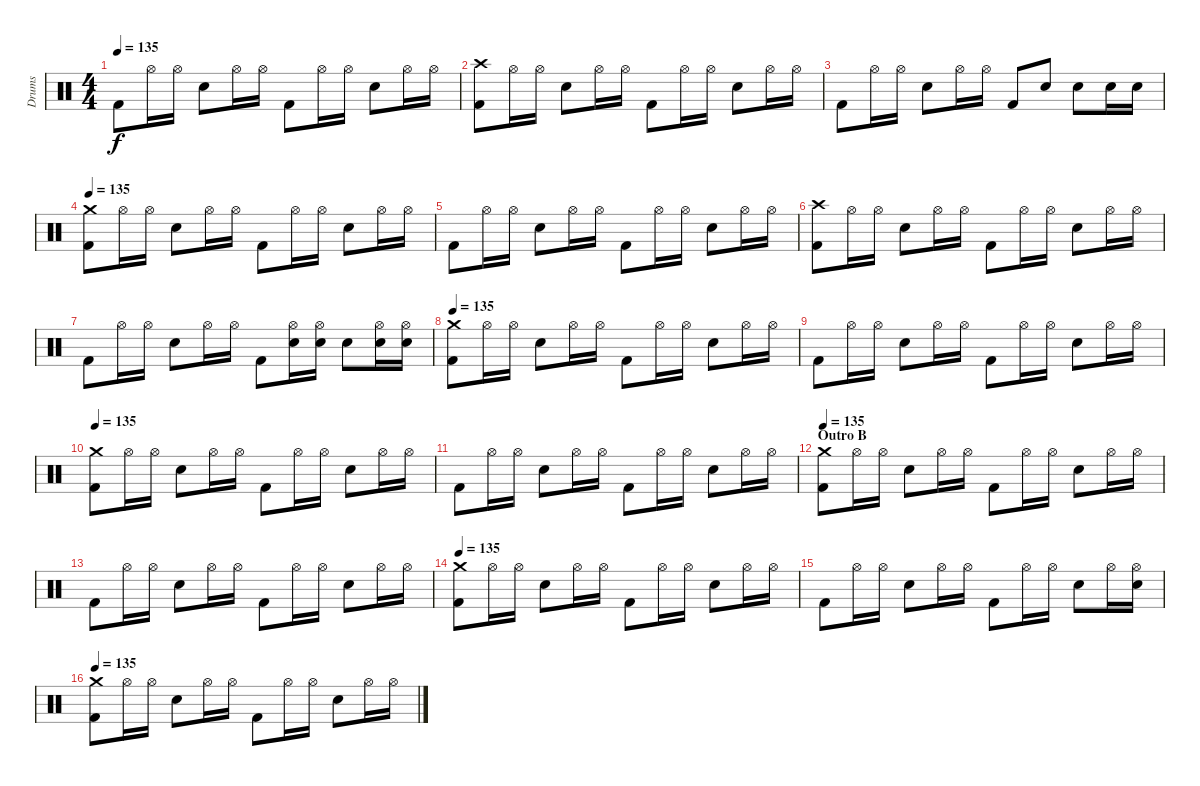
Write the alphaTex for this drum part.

\track ("Drums" "Drums") {instrument percussion}
\staff {score}
\articulation defaults
\ts (4 4)
\tempo 135
\clef neutral
\ks c "Kick (hit) 2".8{dy f} "Hi-Hat (open)".16 "Hi-Hat (open)".16 "Electric Snare (hit)".8 "Hi-Hat (open)".16 "Hi-Hat (open)".16 "Kick (hit) 2".8 "Hi-Hat (open)".16 "Hi-Hat (open)".16 "Electric Snare (hit)".8 "Hi-Hat (open)".16 "Hi-Hat (open)".16
|
("Crash high (hit)" "Kick (hit) 2").8 "Hi-Hat (open)".16 "Hi-Hat (open)".16 "Electric Snare (hit)".8 "Hi-Hat (open)".16 "Hi-Hat (open)".16 "Kick (hit) 2".8 "Hi-Hat (open)".16 "Hi-Hat (open)".16 "Electric Snare (hit)".8 "Hi-Hat (open)".16 "Hi-Hat (open)".16 |
"Kick (hit) 2".8 "Hi-Hat (open)".16 "Hi-Hat (open)".16 "Electric Snare (hit)".8 "Hi-Hat (open)".16 "Hi-Hat (open)".16 "Kick (hit) 2".8 "Electric Snare (hit)".8 "Electric Snare (hit)".8 "Electric Snare (hit)".16 "Electric Snare (hit)".16 |
\tempo 135
("Crash medium (hit)" "Kick (hit) 2").8 "Hi-Hat (open)".16 "Hi-Hat (open)".16 "Electric Snare (hit)".8 "Hi-Hat (open)".16 "Hi-Hat (open)".16 "Kick (hit) 2".8 "Hi-Hat (open)".16 "Hi-Hat (open)".16 "Electric Snare (hit)".8 "Hi-Hat (open)".16 "Hi-Hat (open)".16 |
"Kick (hit) 2".8 "Hi-Hat (open)".16 "Hi-Hat (open)".16 "Electric Snare (hit)".8 "Hi-Hat (open)".16 "Hi-Hat (open)".16 "Kick (hit) 2".8 "Hi-Hat (open)".16 "Hi-Hat (open)".16 "Electric Snare (hit)".8 "Hi-Hat (open)".16 "Hi-Hat (open)".16 |
("Crash high (hit)" "Kick (hit) 2").8 "Hi-Hat (open)".16 "Hi-Hat (open)".16 "Electric Snare (hit)".8 "Hi-Hat (open)".16 "Hi-Hat (open)".16 "Kick (hit) 2".8 "Hi-Hat (open)".16 "Hi-Hat (open)".16 "Electric Snare (hit)".8 "Hi-Hat (open)".16 "Hi-Hat (open)".16 |
"Kick (hit) 2".8 "Hi-Hat (open)".16 "Hi-Hat (open)".16 "Electric Snare (hit)".8 "Hi-Hat (open)".16 "Hi-Hat (open)".16 "Kick (hit) 2".8 ("Hi-Hat (open)" "Electric Snare (hit)").16 ("Hi-Hat (open)" "Electric Snare (hit)").16 "Electric Snare (hit)".8 ("Hi-Hat (open)" "Electric Snare (hit)").16 ("Hi-Hat (open)" "Electric Snare (hit)").16 |
\tempo 135
("Crash medium (hit)" "Kick (hit) 2").8 "Hi-Hat (open)".16 "Hi-Hat (open)".16 "Electric Snare (hit)".8 "Hi-Hat (open)".16 "Hi-Hat (open)".16 "Kick (hit) 2".8 "Hi-Hat (open)".16 "Hi-Hat (open)".16 "Electric Snare (hit)".8 "Hi-Hat (open)".16 "Hi-Hat (open)".16 |
"Kick (hit) 2".8 "Hi-Hat (open)".16 "Hi-Hat (open)".16 "Electric Snare (hit)".8 "Hi-Hat (open)".16 "Hi-Hat (open)".16 "Kick (hit) 2".8 "Hi-Hat (open)".16 "Hi-Hat (open)".16 "Electric Snare (hit)".8 "Hi-Hat (open)".16 "Hi-Hat (open)".16 |
\tempo 135
("Crash medium (hit)" "Kick (hit) 2").8 "Hi-Hat (open)".16 "Hi-Hat (open)".16 "Electric Snare (hit)".8 "Hi-Hat (open)".16 "Hi-Hat (open)".16 "Kick (hit) 2".8 "Hi-Hat (open)".16 "Hi-Hat (open)".16 "Electric Snare (hit)".8 "Hi-Hat (open)".16 "Hi-Hat (open)".16 |
"Kick (hit) 2".8 "Hi-Hat (open)".16 "Hi-Hat (open)".16 "Electric Snare (hit)".8 "Hi-Hat (open)".16 "Hi-Hat (open)".16 "Kick (hit) 2".8 "Hi-Hat (open)".16 "Hi-Hat (open)".16 "Electric Snare (hit)".8 "Hi-Hat (open)".16 "Hi-Hat (open)".16 |
\section ("" "Outro B")
\tempo 135
("Crash medium (hit)" "Kick (hit) 2").8 "Hi-Hat (open)".16 "Hi-Hat (open)".16 "Electric Snare (hit)".8 "Hi-Hat (open)".16 "Hi-Hat (open)".16 "Kick (hit) 2".8 "Hi-Hat (open)".16 "Hi-Hat (open)".16 "Electric Snare (hit)".8 "Hi-Hat (open)".16 "Hi-Hat (open)".16 |
"Kick (hit) 2".8 "Hi-Hat (open)".16 "Hi-Hat (open)".16 "Electric Snare (hit)".8 "Hi-Hat (open)".16 "Hi-Hat (open)".16 "Kick (hit) 2".8 "Hi-Hat (open)".16 "Hi-Hat (open)".16 "Electric Snare (hit)".8 "Hi-Hat (open)".16 "Hi-Hat (open)".16 |
\tempo 135
("Crash medium (hit)" "Kick (hit) 2").8 "Hi-Hat (open)".16 "Hi-Hat (open)".16 "Electric Snare (hit)".8 "Hi-Hat (open)".16 "Hi-Hat (open)".16 "Kick (hit) 2".8 "Hi-Hat (open)".16 "Hi-Hat (open)".16 "Electric Snare (hit)".8 "Hi-Hat (open)".16 "Hi-Hat (open)".16 |
"Kick (hit) 2".8 "Hi-Hat (open)".16 "Hi-Hat (open)".16 "Electric Snare (hit)".8 "Hi-Hat (open)".16 "Hi-Hat (open)".16 "Kick (hit) 2".8 "Hi-Hat (open)".16 "Hi-Hat (open)".16 "Electric Snare (hit)".8 "Hi-Hat (open)".16 ("Hi-Hat (open)" "Electric Snare (hit)").16 |
\tempo 135
("Crash medium (hit)" "Kick (hit) 2").8 "Hi-Hat (open)".16 "Hi-Hat (open)".16 "Electric Snare (hit)".8 "Hi-Hat (open)".16 "Hi-Hat (open)".16 "Kick (hit) 2".8 "Hi-Hat (open)".16 "Hi-Hat (open)".16 "Electric Snare (hit)".8 "Hi-Hat (open)".16 "Hi-Hat (open)".16
